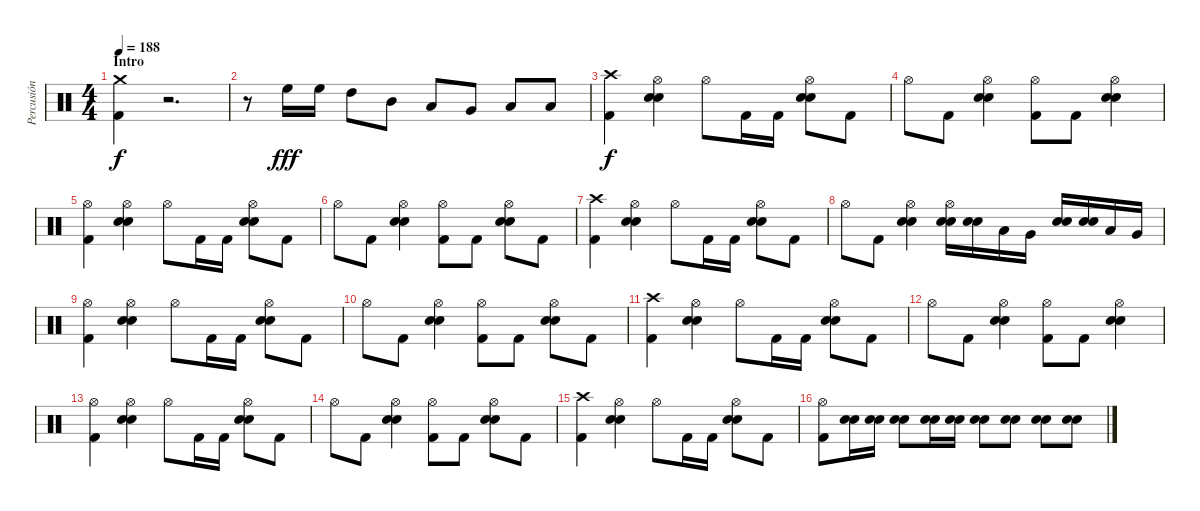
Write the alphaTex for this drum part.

\track ("Percusión" "Percusión") {instrument percussion}
\staff {score}
\articulation defaults
\ts (4 4)
\section ("" "Intro")
\tempo 188
\clef neutral
\ks c
("Crash medium (hit)" "Kick (hit) 2").4{dy f} r.2{d} |
r.8 "High Floor Tom (hit)".16{dy fff} "High Floor Tom (hit)".16 "High Tom (hit)".8 "Mid Tom (hit)".8 "Low Tom (hit)".8 "Very Low Tom (hit)".8 "Low Floor Tom (hit)".8 "Low Floor Tom (hit)".8 |
("Crash high (hit)" "Kick (hit) 2").4{dy f} ("Hi-Hat (open)" "Electric Snare (hit)" "Snare (hit) 2").4 "Hi-Hat (open)".8 "Kick (hit) 2".16 "Kick (hit) 2".16 ("Hi-Hat (open)" "Electric Snare (hit)" "Snare (hit) 2").8 "Kick (hit) 2".8 |
"Hi-Hat (open)".8 "Kick (hit) 2".8 ("Hi-Hat (open)" "Electric Snare (hit)" "Snare (hit) 2").4 ("Hi-Hat (open)" "Kick (hit) 2").8 "Kick (hit) 2".8 ("Hi-Hat (open)" "Electric Snare (hit)" "Snare (hit) 2").4 |
("Hi-Hat (open)" "Kick (hit) 2").4 ("Hi-Hat (open)" "Electric Snare (hit)" "Snare (hit) 2").4 "Hi-Hat (open)".8 "Kick (hit) 2".16 "Kick (hit) 2".16 ("Hi-Hat (open)" "Electric Snare (hit)" "Snare (hit) 2").8 "Kick (hit) 2".8 |
"Hi-Hat (open)".8 "Kick (hit) 2".8 ("Hi-Hat (open)" "Electric Snare (hit)" "Snare (hit) 2").4 ("Hi-Hat (open)" "Kick (hit) 2").8 "Kick (hit) 2".8 ("Hi-Hat (open)" "Electric Snare (hit)" "Snare (hit) 2").8 "Kick (hit) 2".8 |
("Crash high (hit)" "Kick (hit) 2").4 ("Hi-Hat (open)" "Electric Snare (hit)" "Snare (hit) 2").4 "Hi-Hat (open)".8 "Kick (hit) 2".16 "Kick (hit) 2".16 ("Hi-Hat (open)" "Electric Snare (hit)" "Snare (hit) 2").8 "Kick (hit) 2".8 |
"Hi-Hat (open)".8 "Kick (hit) 2".8 ("Hi-Hat (open)" "Electric Snare (hit)" "Snare (hit) 2").4 ("Hi-Hat (open)" "Electric Snare (hit)" "Snare (hit) 2").16 ("Electric Snare (hit)" "Snare (hit) 2").16 "Low Tom (hit)".16 "Very Low Tom (hit)".16 ("Electric Snare (hit)" "Snare (hit) 2").16 ("Electric Snare (hit)" "Snare (hit) 2").16 "Low Tom (hit)".16 "Very Low Tom (hit)".16 |
("Hi-Hat (open)" "Kick (hit) 2").4 ("Hi-Hat (open)" "Electric Snare (hit)" "Snare (hit) 2").4 "Hi-Hat (open)".8 "Kick (hit) 2".16 "Kick (hit) 2".16 ("Hi-Hat (open)" "Electric Snare (hit)" "Snare (hit) 2").8 "Kick (hit) 2".8 |
"Hi-Hat (open)".8 "Kick (hit) 2".8 ("Hi-Hat (open)" "Electric Snare (hit)" "Snare (hit) 2").4 ("Hi-Hat (open)" "Kick (hit) 2").8 "Kick (hit) 2".8 ("Hi-Hat (open)" "Electric Snare (hit)" "Snare (hit) 2").8 "Kick (hit) 2".8 |
("Crash high (hit)" "Kick (hit) 2").4 ("Hi-Hat (open)" "Electric Snare (hit)" "Snare (hit) 2").4 "Hi-Hat (open)".8 "Kick (hit) 2".16 "Kick (hit) 2".16 ("Hi-Hat (open)" "Electric Snare (hit)" "Snare (hit) 2").8 "Kick (hit) 2".8 |
"Hi-Hat (open)".8 "Kick (hit) 2".8 ("Hi-Hat (open)" "Electric Snare (hit)" "Snare (hit) 2").4 ("Hi-Hat (open)" "Kick (hit) 2").8 "Kick (hit) 2".8 ("Hi-Hat (open)" "Electric Snare (hit)" "Snare (hit) 2").4 |
("Hi-Hat (open)" "Kick (hit) 2").4 ("Hi-Hat (open)" "Electric Snare (hit)" "Snare (hit) 2").4 "Hi-Hat (open)".8 "Kick (hit) 2".16 "Kick (hit) 2".16 ("Hi-Hat (open)" "Electric Snare (hit)" "Snare (hit) 2").8 "Kick (hit) 2".8 |
"Hi-Hat (open)".8 "Kick (hit) 2".8 ("Hi-Hat (open)" "Electric Snare (hit)" "Snare (hit) 2").4 ("Hi-Hat (open)" "Kick (hit) 2").8 "Kick (hit) 2".8 ("Hi-Hat (open)" "Electric Snare (hit)" "Snare (hit) 2").8 "Kick (hit) 2".8 |
("Crash high (hit)" "Kick (hit) 2").4 ("Hi-Hat (open)" "Electric Snare (hit)" "Snare (hit) 2").4 "Hi-Hat (open)".8 "Kick (hit) 2".16 "Kick (hit) 2".16 ("Hi-Hat (open)" "Electric Snare (hit)" "Snare (hit) 2").8 "Kick (hit) 2".8 |
("Hi-Hat (open)" "Kick (hit) 2").8 ("Electric Snare (hit)" "Snare (hit) 2").16 ("Electric Snare (hit)" "Snare (hit) 2").16 ("Electric Snare (hit)" "Snare (hit) 2").8 ("Electric Snare (hit)" "Snare (hit) 2").16 ("Electric Snare (hit)" "Snare (hit) 2").16 ("Electric Snare (hit)" "Snare (hit) 2").8 ("Electric Snare (hit)" "Snare (hit) 2").8 ("Electric Snare (hit)" "Snare (hit) 2").8 ("Electric Snare (hit)" "Snare (hit) 2").8
